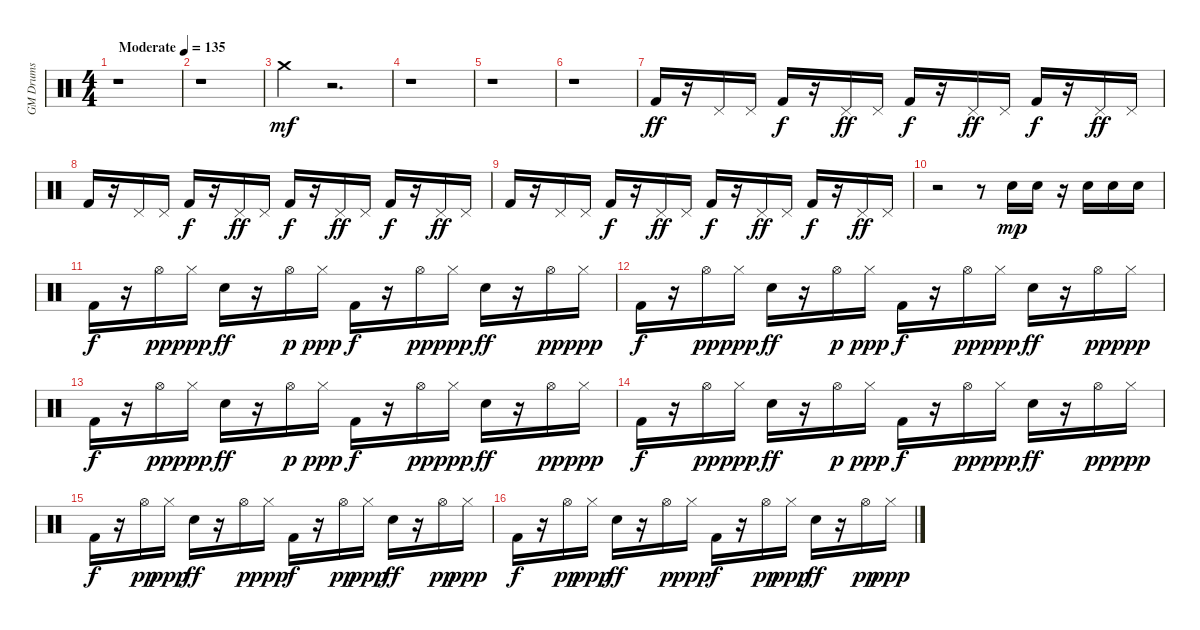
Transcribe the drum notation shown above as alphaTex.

\track ("GM Drums" "GM Drums") {instrument percussion}
\staff {score}
\articulation defaults
\ts (4 4)
\tempo (135 "Moderate")
\clef neutral
\ks c
r.1{dy mf} |
r.1 |
"Crash medium (hit)".4 r.2{d} |
r.1 |
r.1 |
r.1 |
"Kick (hit) 2".16{dy ff} r.16 "Pedal Hi-Hat (hit)".16 "Pedal Hi-Hat (hit)".16 "Kick (hit) 2".16{dy f} r.16 "Pedal Hi-Hat (hit)".16{dy ff} "Pedal Hi-Hat (hit)".16 "Kick (hit) 2".16{dy f} r.16 "Pedal Hi-Hat (hit)".16{dy ff} "Pedal Hi-Hat (hit)".16 "Kick (hit) 2".16{dy f} r.16 "Pedal Hi-Hat (hit)".16{dy ff} "Pedal Hi-Hat (hit)".16 |
"Kick (hit) 2".16 r.16 "Pedal Hi-Hat (hit)".16 "Pedal Hi-Hat (hit)".16 "Kick (hit) 2".16{dy f} r.16 "Pedal Hi-Hat (hit)".16{dy ff} "Pedal Hi-Hat (hit)".16 "Kick (hit) 2".16{dy f} r.16 "Pedal Hi-Hat (hit)".16{dy ff} "Pedal Hi-Hat (hit)".16 "Kick (hit) 2".16{dy f} r.16 "Pedal Hi-Hat (hit)".16{dy ff} "Pedal Hi-Hat (hit)".16 |
"Kick (hit) 2".16 r.16 "Pedal Hi-Hat (hit)".16 "Pedal Hi-Hat (hit)".16 "Kick (hit) 2".16{dy f} r.16 "Pedal Hi-Hat (hit)".16{dy ff} "Pedal Hi-Hat (hit)".16 "Kick (hit) 2".16{dy f} r.16 "Pedal Hi-Hat (hit)".16{dy ff} "Pedal Hi-Hat (hit)".16 "Kick (hit) 2".16{dy f} r.16 "Pedal Hi-Hat (hit)".16{dy ff} "Pedal Hi-Hat (hit)".16 |
r.2 r.8 "Electric Snare (hit)".16{dy mp} "Electric Snare (hit)".16 r.16 "Electric Snare (hit)".16 "Electric Snare (hit)".16 "Electric Snare (hit)".16 |
"Kick (hit) 2".16{dy f} r.16 "Hi-Hat (open)".16{dy pp} "Hi-Hat (closed)".16{dy ppp} "Snare (hit) 2".16{dy ff} r.16 "Hi-Hat (open)".16{dy p} "Hi-Hat (closed)".16{dy ppp} "Kick (hit) 2".16{dy f} r.16 "Hi-Hat (open)".16{dy pp} "Hi-Hat (closed)".16{dy ppp} "Snare (hit) 2".16{dy ff} r.16 "Hi-Hat (open)".16{dy pp} "Hi-Hat (closed)".16{dy ppp} |
"Kick (hit) 2".16{dy f} r.16 "Hi-Hat (open)".16{dy pp} "Hi-Hat (closed)".16{dy ppp} "Snare (hit) 2".16{dy ff} r.16 "Hi-Hat (open)".16{dy p} "Hi-Hat (closed)".16{dy ppp} "Kick (hit) 2".16{dy f} r.16 "Hi-Hat (open)".16{dy pp} "Hi-Hat (closed)".16{dy ppp} "Snare (hit) 2".16{dy ff} r.16 "Hi-Hat (open)".16{dy pp} "Hi-Hat (closed)".16{dy ppp} |
"Kick (hit) 2".16{dy f} r.16 "Hi-Hat (open)".16{dy pp} "Hi-Hat (closed)".16{dy ppp} "Snare (hit) 2".16{dy ff} r.16 "Hi-Hat (open)".16{dy p} "Hi-Hat (closed)".16{dy ppp} "Kick (hit) 2".16{dy f} r.16 "Hi-Hat (open)".16{dy pp} "Hi-Hat (closed)".16{dy ppp} "Snare (hit) 2".16{dy ff} r.16 "Hi-Hat (open)".16{dy pp} "Hi-Hat (closed)".16{dy ppp} |
"Kick (hit) 2".16{dy f} r.16 "Hi-Hat (open)".16{dy pp} "Hi-Hat (closed)".16{dy ppp} "Snare (hit) 2".16{dy ff} r.16 "Hi-Hat (open)".16{dy p} "Hi-Hat (closed)".16{dy ppp} "Kick (hit) 2".16{dy f} r.16 "Hi-Hat (open)".16{dy pp} "Hi-Hat (closed)".16{dy ppp} "Snare (hit) 2".16{dy ff} r.16 "Hi-Hat (open)".16{dy pp} "Hi-Hat (closed)".16{dy ppp} |
"Kick (hit) 2".16{dy f} r.16 "Hi-Hat (open)".16{dy pp} "Hi-Hat (closed)".16{dy ppp} "Snare (hit) 2".16{dy ff} r.16 "Hi-Hat (open)".16{dy p} "Hi-Hat (closed)".16{dy ppp} "Kick (hit) 2".16{dy f} r.16 "Hi-Hat (open)".16{dy pp} "Hi-Hat (closed)".16{dy ppp} "Snare (hit) 2".16{dy ff} r.16 "Hi-Hat (open)".16{dy pp} "Hi-Hat (closed)".16{dy ppp} |
"Kick (hit) 2".16{dy f} r.16 "Hi-Hat (open)".16{dy pp} "Hi-Hat (closed)".16{dy ppp} "Snare (hit) 2".16{dy ff} r.16 "Hi-Hat (open)".16{dy p} "Hi-Hat (closed)".16{dy ppp} "Kick (hit) 2".16{dy f} r.16 "Hi-Hat (open)".16{dy pp} "Hi-Hat (closed)".16{dy ppp} "Snare (hit) 2".16{dy ff} r.16 "Hi-Hat (open)".16{dy pp} "Hi-Hat (closed)".16{dy ppp}
